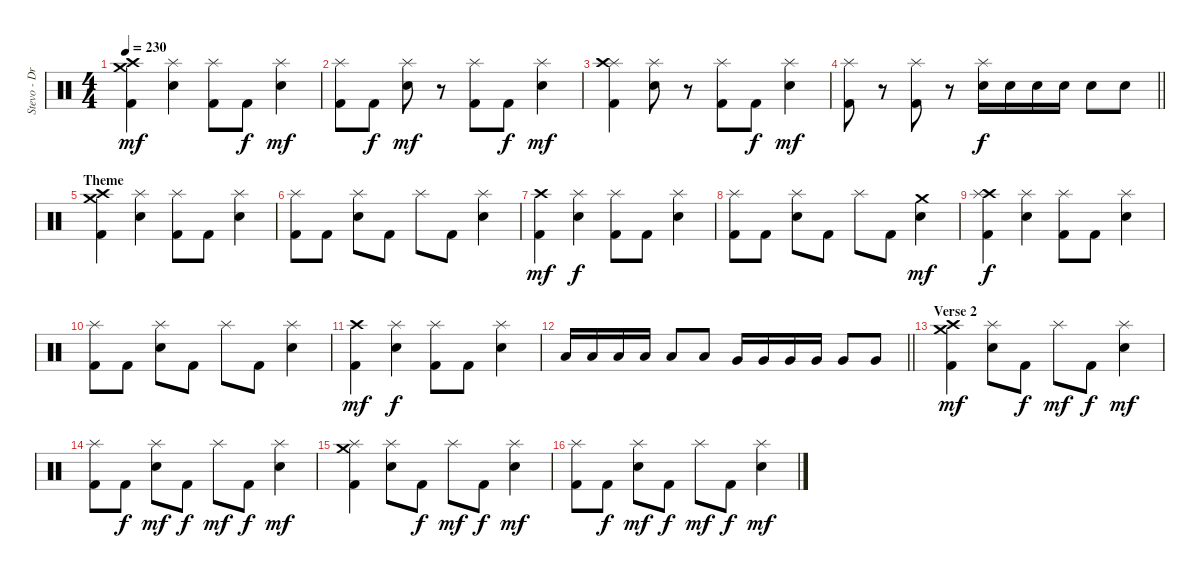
\track ("Stevo - Drums" "Stevo - Dr") {instrument percussion}
\staff {score}
\articulation defaults
\ts (4 4)
\tempo 230
\clef neutral
\ks c
("Crash high (hit)" "Crash medium (hit)" "Kick (hit) 2").4{dy mf} ("Splash (hit)" "Electric Snare (hit)").4 ("Splash (hit)" "Kick (hit) 2").8 "Kick (hit) 2".8{dy f} ("Splash (hit)" "Electric Snare (hit)").4{dy mf} |
("Splash (hit)" "Kick (hit) 2").8 "Kick (hit) 2".8{dy f} ("Splash (hit)" "Electric Snare (hit)").8{dy mf} r.8 ("Splash (hit)" "Kick (hit) 2").8 "Kick (hit) 2".8{dy f} ("Splash (hit)" "Electric Snare (hit)").4{dy mf} |
("Splash (hit)" "Crash high (hit)" "Kick (hit) 2").4 ("Splash (hit)" "Electric Snare (hit)").8 r.8 ("Splash (hit)" "Kick (hit) 2").8 "Kick (hit) 2".8{dy f} ("Splash (hit)" "Electric Snare (hit)").4{dy mf} |
\barLineRight lightlight
("Splash (hit)" "Kick (hit) 2").8 r.8 ("Splash (hit)" "Kick (hit) 2").8 r.8 ("Splash (hit)" "Electric Snare (hit)").16{dy f} "Electric Snare (hit)".16 "Electric Snare (hit)".16 "Electric Snare (hit)".16 "Electric Snare (hit)".8 "Electric Snare (hit)".8 |
\section ("" "Theme")
("Crash high (hit)" "Crash medium (hit)" "Kick (hit) 2").4 ("Splash (hit)" "Electric Snare (hit)").4 ("Splash (hit)" "Kick (hit) 2").8 "Kick (hit) 2".8 ("Splash (hit)" "Electric Snare (hit)").4 |
("Splash (hit)" "Kick (hit) 2").8 "Kick (hit) 2".8 ("Splash (hit)" "Electric Snare (hit)").8 "Kick (hit) 2".8 "Splash (hit)".8 "Kick (hit) 2".8 ("Splash (hit)" "Electric Snare (hit)").4 |
("Crash high (hit)" "Kick (hit) 2").4{dy mf} ("Splash (hit)" "Electric Snare (hit)").4{dy f} ("Splash (hit)" "Kick (hit) 2").8 "Kick (hit) 2".8 ("Splash (hit)" "Electric Snare (hit)").4 |
("Splash (hit)" "Kick (hit) 2").8 "Kick (hit) 2".8 ("Splash (hit)" "Electric Snare (hit)").8 "Kick (hit) 2".8 "Splash (hit)".8 "Kick (hit) 2".8 ("Crash medium (hit)" "Electric Snare (hit)").4{dy mf} |
("Crash high (hit)" "Splash (hit)" "Kick (hit) 2").4{dy f} ("Splash (hit)" "Electric Snare (hit)").4 ("Splash (hit)" "Kick (hit) 2").8 "Kick (hit) 2".8 ("Splash (hit)" "Electric Snare (hit)").4 |
("Splash (hit)" "Kick (hit) 2").8 "Kick (hit) 2".8 ("Splash (hit)" "Electric Snare (hit)").8 "Kick (hit) 2".8 "Splash (hit)".8 "Kick (hit) 2".8 ("Splash (hit)" "Electric Snare (hit)").4 |
("Crash high (hit)" "Kick (hit) 2").4{dy mf} ("Splash (hit)" "Electric Snare (hit)").4{dy f} ("Splash (hit)" "Kick (hit) 2").8 "Kick (hit) 2".8 ("Splash (hit)" "Electric Snare (hit)").4 |
\barLineRight lightlight "Low Tom (hit)".16 "Low Tom (hit)".16 "Low Tom (hit)".16 "Low Tom (hit)".16 "Low Tom (hit)".8 "Low Tom (hit)".8 "Very Low Tom (hit)".16 "Very Low Tom (hit)".16 "Very Low Tom (hit)".16 "Very Low Tom (hit)".16 "Very Low Tom (hit)".8 "Very Low Tom (hit)".8
|
\section ("" "Verse 2")
("Crash high (hit)" "Crash medium (hit)" "Kick (hit) 2").4{dy mf} ("Splash (hit)" "Electric Snare (hit)").8 "Kick (hit) 2".8{dy f} "Splash (hit)".8{dy mf} "Kick (hit) 2".8{dy f} ("Splash (hit)" "Electric Snare (hit)").4{dy mf} |
("Splash (hit)" "Kick (hit) 2").8 "Kick (hit) 2".8{dy f} ("Splash (hit)" "Electric Snare (hit)").8{dy mf} "Kick (hit) 2".8{dy f} "Splash (hit)".8{dy mf} "Kick (hit) 2".8{dy f} ("Splash (hit)" "Electric Snare (hit)").4{dy mf} |
("Splash (hit)" "Crash medium (hit)" "Kick (hit) 2").4 ("Splash (hit)" "Electric Snare (hit)").8 "Kick (hit) 2".8{dy f} "Splash (hit)".8{dy mf} "Kick (hit) 2".8{dy f} ("Splash (hit)" "Electric Snare (hit)").4{dy mf} |
("Splash (hit)" "Kick (hit) 2").8 "Kick (hit) 2".8{dy f} ("Splash (hit)" "Electric Snare (hit)").8{dy mf} "Kick (hit) 2".8{dy f} "Splash (hit)".8{dy mf} "Kick (hit) 2".8{dy f} ("Splash (hit)" "Electric Snare (hit)").4{dy mf}
